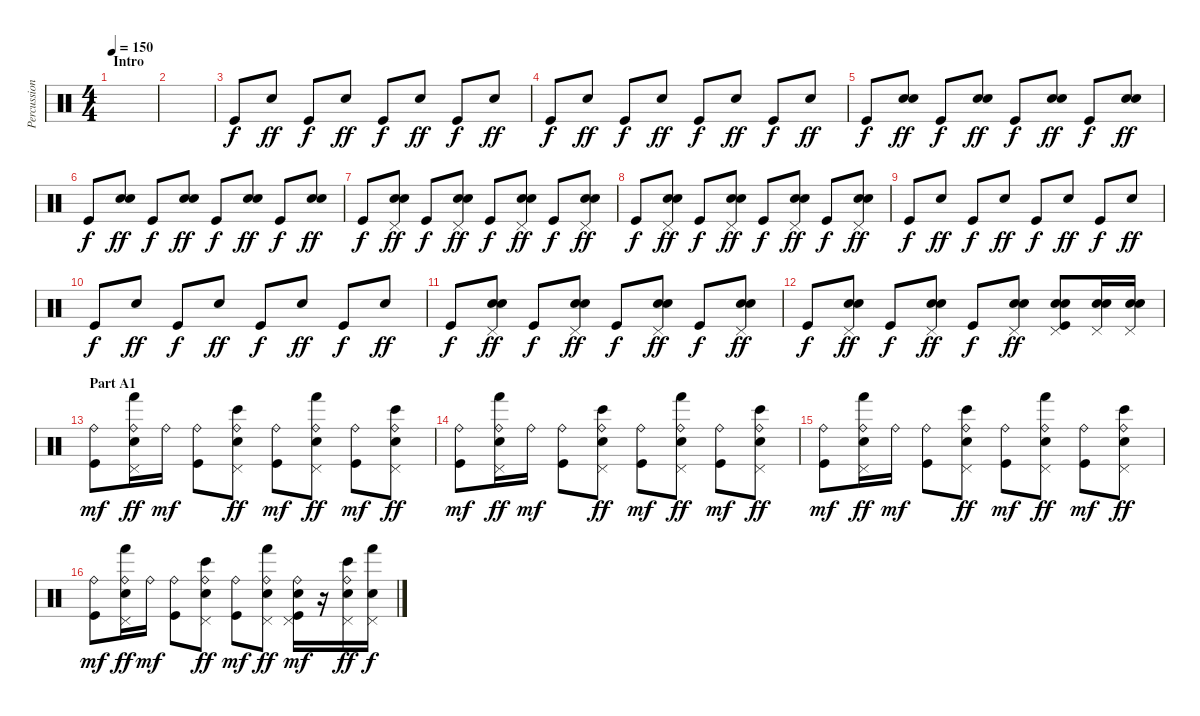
\track ("Percussion" "Percussion") {instrument percussion}
\staff {score}
\articulation defaults
\ts (4 4)
\section ("" "Intro")
\tempo 150
\clef neutral
\ks c
|
|
"Kick (hit)".8 "Electric Snare (hit)".8{dy ff} "Kick (hit)".8{dy f} "Electric Snare (hit)".8{dy ff} "Kick (hit)".8{dy f} "Electric Snare (hit)".8{dy ff} "Kick (hit)".8{dy f} "Electric Snare (hit)".8{dy ff} |
"Kick (hit)".8{dy f} "Electric Snare (hit)".8{dy ff} "Kick (hit)".8{dy f} "Electric Snare (hit)".8{dy ff} "Kick (hit)".8{dy f} "Electric Snare (hit)".8{dy ff} "Kick (hit)".8{dy f} "Electric Snare (hit)".8{dy ff} |
"Kick (hit)".8{dy f} ("Snare (hit) 2" "Electric Snare (hit)").8{dy ff} "Kick (hit)".8{dy f} ("Snare (hit) 2" "Electric Snare (hit)").8{dy ff} "Kick (hit)".8{dy f} ("Snare (hit) 2" "Electric Snare (hit)").8{dy ff} "Kick (hit)".8{dy f} ("Snare (hit) 2" "Electric Snare (hit)").8{dy ff} |
"Kick (hit)".8{dy f} ("Snare (hit) 2" "Electric Snare (hit)").8{dy ff} "Kick (hit)".8{dy f} ("Snare (hit) 2" "Electric Snare (hit)").8{dy ff} "Kick (hit)".8{dy f} ("Snare (hit) 2" "Electric Snare (hit)").8{dy ff} "Kick (hit)".8{dy f} ("Snare (hit) 2" "Electric Snare (hit)").8{dy ff} |
"Kick (hit)".8{dy f} ("Pedal Hi-Hat (hit)" "Snare (hit) 2" "Electric Snare (hit)").8{dy ff} "Kick (hit)".8{dy f} ("Pedal Hi-Hat (hit)" "Snare (hit) 2" "Electric Snare (hit)").8{dy ff} "Kick (hit)".8{dy f} ("Pedal Hi-Hat (hit)" "Snare (hit) 2" "Electric Snare (hit)").8{dy ff} "Kick (hit)".8{dy f} ("Pedal Hi-Hat (hit)" "Snare (hit) 2" "Electric Snare (hit)").8{dy ff} |
"Kick (hit)".8{dy f} ("Pedal Hi-Hat (hit)" "Snare (hit) 2" "Electric Snare (hit)").8{dy ff} "Kick (hit)".8{dy f} ("Pedal Hi-Hat (hit)" "Snare (hit) 2" "Electric Snare (hit)").8{dy ff} "Kick (hit)".8{dy f} ("Pedal Hi-Hat (hit)" "Snare (hit) 2" "Electric Snare (hit)").8{dy ff} "Kick (hit)".8{dy f} ("Pedal Hi-Hat (hit)" "Snare (hit) 2" "Electric Snare (hit)").8{dy ff} |
"Kick (hit)".8{dy f} "Electric Snare (hit)".8{dy ff} "Kick (hit)".8{dy f} "Electric Snare (hit)".8{dy ff} "Kick (hit)".8{dy f} "Electric Snare (hit)".8{dy ff} "Kick (hit)".8{dy f} "Electric Snare (hit)".8{dy ff} |
"Kick (hit)".8{dy f} "Electric Snare (hit)".8{dy ff} "Kick (hit)".8{dy f} "Electric Snare (hit)".8{dy ff} "Kick (hit)".8{dy f} "Electric Snare (hit)".8{dy ff} "Kick (hit)".8{dy f} "Electric Snare (hit)".8{dy ff} |
"Kick (hit)".8{dy f} ("Pedal Hi-Hat (hit)" "Snare (hit) 2" "Electric Snare (hit)").8{dy ff} "Kick (hit)".8{dy f} ("Pedal Hi-Hat (hit)" "Snare (hit) 2" "Electric Snare (hit)").8{dy ff} "Kick (hit)".8{dy f} ("Pedal Hi-Hat (hit)" "Snare (hit) 2" "Electric Snare (hit)").8{dy ff} "Kick (hit)".8{dy f} ("Pedal Hi-Hat (hit)" "Snare (hit) 2" "Electric Snare (hit)").8{dy ff} |
"Kick (hit)".8{dy f} ("Pedal Hi-Hat (hit)" "Snare (hit) 2" "Electric Snare (hit)").8{dy ff} "Kick (hit)".8{dy f} ("Pedal Hi-Hat (hit)" "Snare (hit) 2" "Electric Snare (hit)").8{dy ff} "Kick (hit)".8{dy f} ("Pedal Hi-Hat (hit)" "Snare (hit) 2" "Electric Snare (hit)").8{dy ff} ("Pedal Hi-Hat (hit)" "Snare (hit) 2" "Electric Snare (hit)" "Kick (hit)").8 ("Pedal Hi-Hat (hit)" "Snare (hit) 2" "Electric Snare (hit)").16 ("Pedal Hi-Hat (hit)" "Snare (hit) 2" "Electric Snare (hit)").16 |
\section ("" "Part A1")
("Ride (bell)" "Kick (hit)").8{dy mf} ("Ride (bell)" "Pedal Hi-Hat (hit)" "Hand (hit)" "Electric Snare (hit)").16{dy ff} "Ride (bell)".16{dy mf} ("Ride (bell)" "Kick (hit)").8 ("Ride (bell)" "Pedal Hi-Hat (hit)" "Bongo High (hit)" "Electric Snare (hit)").8{dy ff} ("Ride (bell)" "Kick (hit)").8{dy mf} ("Ride (bell)" "Pedal Hi-Hat (hit)" "Hand (hit)" "Electric Snare (hit)").8{dy ff} ("Ride (bell)" "Kick (hit)").8{dy mf} ("Ride (bell)" "Pedal Hi-Hat (hit)" "Bongo High (hit)" "Electric Snare (hit)").8{dy ff} |
("Ride (bell)" "Kick (hit)").8{dy mf} ("Ride (bell)" "Pedal Hi-Hat (hit)" "Hand (hit)" "Electric Snare (hit)").16{dy ff} "Ride (bell)".16{dy mf} ("Ride (bell)" "Kick (hit)").8 ("Ride (bell)" "Pedal Hi-Hat (hit)" "Bongo High (hit)" "Electric Snare (hit)").8{dy ff} ("Ride (bell)" "Kick (hit)").8{dy mf} ("Ride (bell)" "Pedal Hi-Hat (hit)" "Hand (hit)" "Electric Snare (hit)").8{dy ff} ("Ride (bell)" "Kick (hit)").8{dy mf} ("Ride (bell)" "Pedal Hi-Hat (hit)" "Bongo High (hit)" "Electric Snare (hit)").8{dy ff} |
("Ride (bell)" "Kick (hit)").8{dy mf} ("Ride (bell)" "Pedal Hi-Hat (hit)" "Hand (hit)" "Electric Snare (hit)").16{dy ff} "Ride (bell)".16{dy mf} ("Ride (bell)" "Kick (hit)").8 ("Ride (bell)" "Pedal Hi-Hat (hit)" "Bongo High (hit)" "Electric Snare (hit)").8{dy ff} ("Ride (bell)" "Kick (hit)").8{dy mf} ("Ride (bell)" "Pedal Hi-Hat (hit)" "Hand (hit)" "Electric Snare (hit)").8{dy ff} ("Ride (bell)" "Kick (hit)").8{dy mf} ("Ride (bell)" "Pedal Hi-Hat (hit)" "Bongo High (hit)" "Electric Snare (hit)").8{dy ff} |
("Ride (bell)" "Kick (hit)").8{dy mf} ("Ride (bell)" "Pedal Hi-Hat (hit)" "Hand (hit)" "Electric Snare (hit)").16{dy ff} "Ride (bell)".16{dy mf} ("Ride (bell)" "Kick (hit)").8 ("Ride (bell)" "Pedal Hi-Hat (hit)" "Bongo High (hit)" "Electric Snare (hit)").8{dy ff} ("Ride (bell)" "Kick (hit)").8{dy mf} ("Ride (bell)" "Pedal Hi-Hat (hit)" "Hand (hit)" "Electric Snare (hit)").8{dy ff} ("Ride (bell)" "Pedal Hi-Hat (hit)" "Electric Snare (hit)" "Kick (hit)").16{dy mf} r.16 ("Ride (bell)" "Pedal Hi-Hat (hit)" "Bongo High (hit)" "Electric Snare (hit)").16{dy ff} ("Pedal Hi-Hat (hit)" "Hand (hit)" "Electric Snare (hit)").16{dy f}
